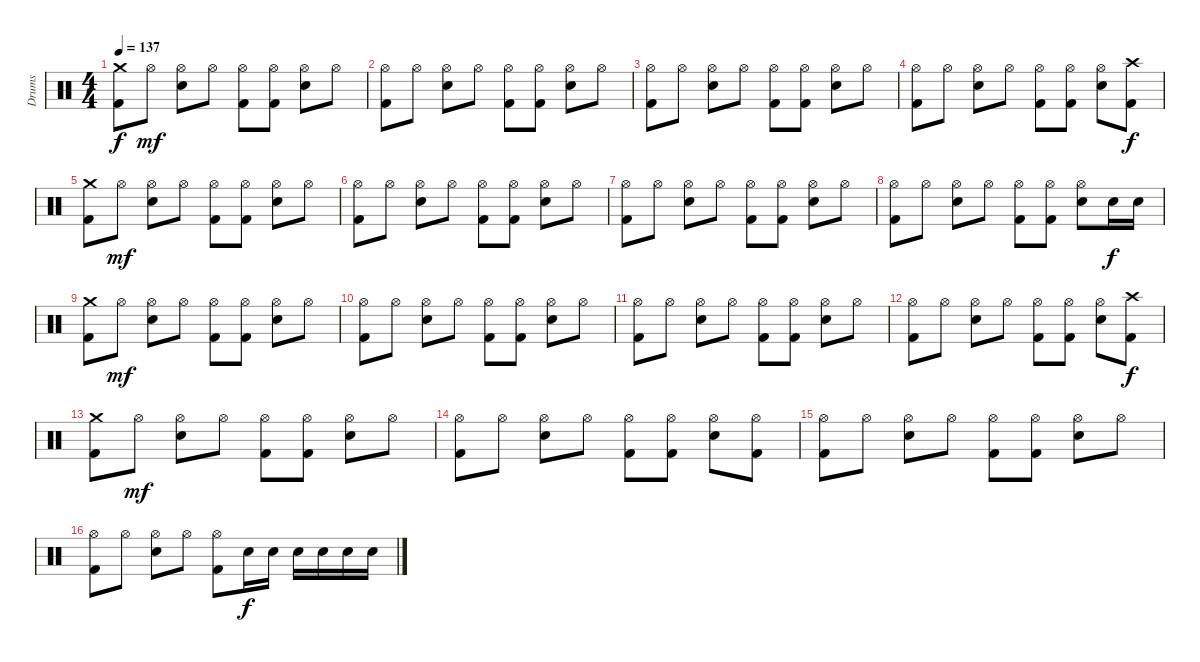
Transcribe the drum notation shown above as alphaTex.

\track ("Drums" "Drums") {instrument percussion}
\staff {score}
\articulation defaults
\ts (4 4)
\tempo 137
\clef neutral
\ks c
("Crash medium (hit)" "Kick (hit) 2").8{dy f} "Hi-Hat (open)".8{dy mf} ("Hi-Hat (open)" "Snare (hit) 2").8 "Hi-Hat (open)".8 ("Hi-Hat (open)" "Kick (hit) 2").8 ("Hi-Hat (open)" "Kick (hit) 2").8 ("Hi-Hat (open)" "Snare (hit) 2").8 "Hi-Hat (open)".8 |
("Hi-Hat (open)" "Kick (hit) 2").8 "Hi-Hat (open)".8 ("Hi-Hat (open)" "Snare (hit) 2").8 "Hi-Hat (open)".8 ("Hi-Hat (open)" "Kick (hit) 2").8 ("Hi-Hat (open)" "Kick (hit) 2").8 ("Hi-Hat (open)" "Snare (hit) 2").8 "Hi-Hat (open)".8 |
("Hi-Hat (open)" "Kick (hit) 2").8 "Hi-Hat (open)".8 ("Hi-Hat (open)" "Snare (hit) 2").8 "Hi-Hat (open)".8 ("Hi-Hat (open)" "Kick (hit) 2").8 ("Hi-Hat (open)" "Kick (hit) 2").8 ("Hi-Hat (open)" "Snare (hit) 2").8 "Hi-Hat (open)".8 |
("Hi-Hat (open)" "Kick (hit) 2").8 "Hi-Hat (open)".8 ("Hi-Hat (open)" "Snare (hit) 2").8 "Hi-Hat (open)".8 ("Hi-Hat (open)" "Kick (hit) 2").8 ("Hi-Hat (open)" "Kick (hit) 2").8 ("Hi-Hat (open)" "Snare (hit) 2").8 ("Crash high (hit)" "Kick (hit) 2").8{dy f} |
("Crash medium (hit)" "Kick (hit) 2").8 "Hi-Hat (open)".8{dy mf} ("Hi-Hat (open)" "Snare (hit) 2").8 "Hi-Hat (open)".8 ("Hi-Hat (open)" "Kick (hit) 2").8 ("Hi-Hat (open)" "Kick (hit) 2").8 ("Hi-Hat (open)" "Snare (hit) 2").8 "Hi-Hat (open)".8 |
("Hi-Hat (open)" "Kick (hit) 2").8 "Hi-Hat (open)".8 ("Hi-Hat (open)" "Snare (hit) 2").8 "Hi-Hat (open)".8 ("Hi-Hat (open)" "Kick (hit) 2").8 ("Hi-Hat (open)" "Kick (hit) 2").8 ("Hi-Hat (open)" "Snare (hit) 2").8 "Hi-Hat (open)".8 |
("Hi-Hat (open)" "Kick (hit) 2").8 "Hi-Hat (open)".8 ("Hi-Hat (open)" "Snare (hit) 2").8 "Hi-Hat (open)".8 ("Hi-Hat (open)" "Kick (hit) 2").8 ("Hi-Hat (open)" "Kick (hit) 2").8 ("Hi-Hat (open)" "Snare (hit) 2").8 "Hi-Hat (open)".8 |
("Hi-Hat (open)" "Kick (hit) 2").8 "Hi-Hat (open)".8 ("Hi-Hat (open)" "Snare (hit) 2").8 "Hi-Hat (open)".8 ("Hi-Hat (open)" "Kick (hit) 2").8 ("Hi-Hat (open)" "Kick (hit) 2").8 ("Hi-Hat (open)" "Snare (hit) 2").8 "Snare (hit) 2".16{dy f} "Snare (hit) 2".16 |
("Crash medium (hit)" "Kick (hit) 2").8 "Hi-Hat (open)".8{dy mf} ("Hi-Hat (open)" "Snare (hit) 2").8 "Hi-Hat (open)".8 ("Hi-Hat (open)" "Kick (hit) 2").8 ("Hi-Hat (open)" "Kick (hit) 2").8 ("Hi-Hat (open)" "Snare (hit) 2").8 "Hi-Hat (open)".8 |
("Hi-Hat (open)" "Kick (hit) 2").8 "Hi-Hat (open)".8 ("Hi-Hat (open)" "Snare (hit) 2").8 "Hi-Hat (open)".8 ("Hi-Hat (open)" "Kick (hit) 2").8 ("Hi-Hat (open)" "Kick (hit) 2").8 ("Hi-Hat (open)" "Snare (hit) 2").8 "Hi-Hat (open)".8 |
("Hi-Hat (open)" "Kick (hit) 2").8 "Hi-Hat (open)".8 ("Hi-Hat (open)" "Snare (hit) 2").8 "Hi-Hat (open)".8 ("Hi-Hat (open)" "Kick (hit) 2").8 ("Hi-Hat (open)" "Kick (hit) 2").8 ("Hi-Hat (open)" "Snare (hit) 2").8 "Hi-Hat (open)".8 |
("Hi-Hat (open)" "Kick (hit) 2").8 "Hi-Hat (open)".8 ("Hi-Hat (open)" "Snare (hit) 2").8 "Hi-Hat (open)".8 ("Hi-Hat (open)" "Kick (hit) 2").8 ("Hi-Hat (open)" "Kick (hit) 2").8 ("Hi-Hat (open)" "Snare (hit) 2").8 ("Crash high (hit)" "Kick (hit) 2").8{dy f} |
("Crash medium (hit)" "Kick (hit) 2").8 "Hi-Hat (open)".8{dy mf} ("Hi-Hat (open)" "Snare (hit) 2").8 "Hi-Hat (open)".8 ("Hi-Hat (open)" "Kick (hit) 2").8 ("Hi-Hat (open)" "Kick (hit) 2").8 ("Hi-Hat (open)" "Snare (hit) 2").8 "Hi-Hat (open)".8 |
("Hi-Hat (open)" "Kick (hit) 2").8 "Hi-Hat (open)".8 ("Hi-Hat (open)" "Snare (hit) 2").8 "Hi-Hat (open)".8 ("Hi-Hat (open)" "Kick (hit) 2").8 ("Hi-Hat (open)" "Kick (hit) 2").8 ("Hi-Hat (open)" "Snare (hit) 2").8 ("Hi-Hat (open)" "Kick (hit) 2").8 |
("Hi-Hat (open)" "Kick (hit) 2").8 "Hi-Hat (open)".8 ("Hi-Hat (open)" "Snare (hit) 2").8 "Hi-Hat (open)".8 ("Hi-Hat (open)" "Kick (hit) 2").8 ("Hi-Hat (open)" "Kick (hit) 2").8 ("Hi-Hat (open)" "Snare (hit) 2").8 "Hi-Hat (open)".8 |
("Hi-Hat (open)" "Kick (hit) 2").8 "Hi-Hat (open)".8 ("Hi-Hat (open)" "Snare (hit) 2").8 "Hi-Hat (open)".8 ("Hi-Hat (open)" "Kick (hit) 2").8 "Snare (hit) 2".16{dy f} "Snare (hit) 2".16 "Snare (hit) 2".16 "Snare (hit) 2".16 "Snare (hit) 2".16 "Snare (hit) 2".16
